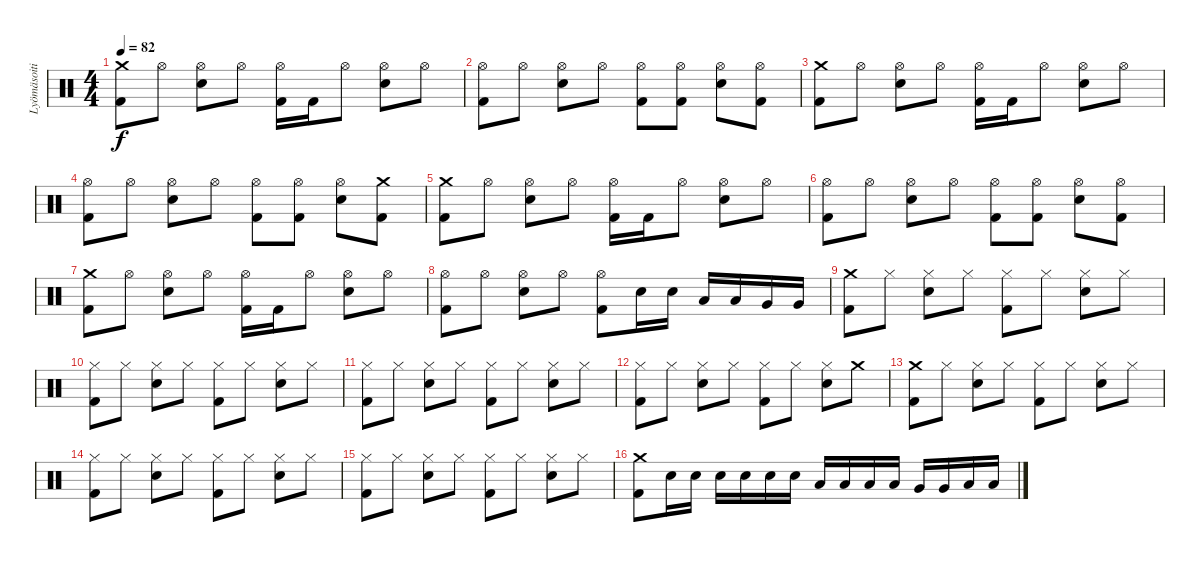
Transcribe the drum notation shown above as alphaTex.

\track ("Lyömäsoitin" "Lyömäsoiti") {instrument percussion}
\staff {score}
\articulation defaults
\ts (4 4)
\tempo 82
\clef neutral
\ks c
("Crash medium (hit)" "Kick (hit) 2").8{dy f} "Hi-Hat (open)".8 ("Hi-Hat (open)" "Electric Snare (hit)").8 "Hi-Hat (open)".8 ("Hi-Hat (open)" "Kick (hit) 2").16 "Kick (hit) 2".16 "Hi-Hat (open)".8 ("Hi-Hat (open)" "Electric Snare (hit)").8 "Hi-Hat (open)".8 |
("Hi-Hat (open)" "Kick (hit) 2").8 "Hi-Hat (open)".8 ("Hi-Hat (open)" "Electric Snare (hit)").8 "Hi-Hat (open)".8 ("Hi-Hat (open)" "Kick (hit) 2").8 ("Hi-Hat (open)" "Kick (hit) 2").8 ("Hi-Hat (open)" "Electric Snare (hit)").8 ("Hi-Hat (open)" "Kick (hit) 2").8 |
("Crash medium (hit)" "Kick (hit) 2").8 "Hi-Hat (open)".8 ("Hi-Hat (open)" "Electric Snare (hit)").8 "Hi-Hat (open)".8 ("Hi-Hat (open)" "Kick (hit) 2").16 "Kick (hit) 2".16 "Hi-Hat (open)".8 ("Hi-Hat (open)" "Electric Snare (hit)").8 "Hi-Hat (open)".8 |
("Hi-Hat (open)" "Kick (hit) 2").8 "Hi-Hat (open)".8 ("Hi-Hat (open)" "Electric Snare (hit)").8 "Hi-Hat (open)".8 ("Hi-Hat (open)" "Kick (hit) 2").8 ("Hi-Hat (open)" "Kick (hit) 2").8 ("Hi-Hat (open)" "Electric Snare (hit)").8 ("Crash medium (hit)" "Kick (hit) 2").8 |
("Crash medium (hit)" "Kick (hit) 2").8 "Hi-Hat (open)".8 ("Hi-Hat (open)" "Electric Snare (hit)").8 "Hi-Hat (open)".8 ("Hi-Hat (open)" "Kick (hit) 2").16 "Kick (hit) 2".16 "Hi-Hat (open)".8 ("Hi-Hat (open)" "Electric Snare (hit)").8 "Hi-Hat (open)".8 |
("Hi-Hat (open)" "Kick (hit) 2").8 "Hi-Hat (open)".8 ("Hi-Hat (open)" "Electric Snare (hit)").8 "Hi-Hat (open)".8 ("Hi-Hat (open)" "Kick (hit) 2").8 ("Hi-Hat (open)" "Kick (hit) 2").8 ("Hi-Hat (open)" "Electric Snare (hit)").8 ("Hi-Hat (open)" "Kick (hit) 2").8 |
("Crash medium (hit)" "Kick (hit) 2").8 "Hi-Hat (open)".8 ("Hi-Hat (open)" "Electric Snare (hit)").8 "Hi-Hat (open)".8 ("Hi-Hat (open)" "Kick (hit) 2").16 "Kick (hit) 2".16 "Hi-Hat (open)".8 ("Hi-Hat (open)" "Electric Snare (hit)").8 "Hi-Hat (open)".8 |
("Hi-Hat (open)" "Kick (hit) 2").8 "Hi-Hat (open)".8 ("Hi-Hat (open)" "Electric Snare (hit)").8 "Hi-Hat (open)".8 ("Hi-Hat (open)" "Kick (hit) 2").8 "Electric Snare (hit)".16 "Electric Snare (hit)".16 "Low Tom (hit)".16 "Low Tom (hit)".16 "Very Low Tom (hit)".16 "Very Low Tom (hit)".16 |
("Crash medium (hit)" "Kick (hit) 2").8 "Hi-Hat (closed)".8 ("Hi-Hat (closed)" "Electric Snare (hit)").8 "Hi-Hat (closed)".8 ("Hi-Hat (closed)" "Kick (hit) 2").8 "Hi-Hat (closed)".8 ("Hi-Hat (closed)" "Electric Snare (hit)").8 "Hi-Hat (closed)".8 |
("Hi-Hat (closed)" "Kick (hit) 2").8 "Hi-Hat (closed)".8 ("Hi-Hat (closed)" "Electric Snare (hit)").8 "Hi-Hat (closed)".8 ("Hi-Hat (closed)" "Kick (hit) 2").8 "Hi-Hat (closed)".8 ("Hi-Hat (closed)" "Electric Snare (hit)").8 "Hi-Hat (closed)".8 |
("Hi-Hat (closed)" "Kick (hit) 2").8 "Hi-Hat (closed)".8 ("Hi-Hat (closed)" "Electric Snare (hit)").8 "Hi-Hat (closed)".8 ("Hi-Hat (closed)" "Kick (hit) 2").8 "Hi-Hat (closed)".8 ("Hi-Hat (closed)" "Electric Snare (hit)").8 "Hi-Hat (closed)".8 |
("Hi-Hat (closed)" "Kick (hit) 2").8 "Hi-Hat (closed)".8 ("Hi-Hat (closed)" "Electric Snare (hit)").8 "Hi-Hat (closed)".8 ("Hi-Hat (closed)" "Kick (hit) 2").8 "Hi-Hat (closed)".8 ("Hi-Hat (closed)" "Electric Snare (hit)").8 "Crash medium (hit)".8 |
("Crash medium (hit)" "Kick (hit) 2").8 "Hi-Hat (closed)".8 ("Hi-Hat (closed)" "Electric Snare (hit)").8 "Hi-Hat (closed)".8 ("Hi-Hat (closed)" "Kick (hit) 2").8 "Hi-Hat (closed)".8 ("Hi-Hat (closed)" "Electric Snare (hit)").8 "Hi-Hat (closed)".8 |
("Hi-Hat (closed)" "Kick (hit) 2").8 "Hi-Hat (closed)".8 ("Hi-Hat (closed)" "Electric Snare (hit)").8 "Hi-Hat (closed)".8 ("Hi-Hat (closed)" "Kick (hit) 2").8 "Hi-Hat (closed)".8 ("Hi-Hat (closed)" "Electric Snare (hit)").8 "Hi-Hat (closed)".8 |
("Hi-Hat (closed)" "Kick (hit) 2").8 "Hi-Hat (closed)".8 ("Hi-Hat (closed)" "Electric Snare (hit)").8 "Hi-Hat (closed)".8 ("Hi-Hat (closed)" "Kick (hit) 2").8 "Hi-Hat (closed)".8 ("Hi-Hat (closed)" "Electric Snare (hit)").8 "Hi-Hat (closed)".8 |
("Crash medium (hit)" "Kick (hit) 2").8 "Electric Snare (hit)".16 "Electric Snare (hit)".16 "Electric Snare (hit)".16 "Electric Snare (hit)".16 "Electric Snare (hit)".16 "Electric Snare (hit)".16 "Low Tom (hit)".16 "Low Tom (hit)".16 "Low Tom (hit)".16 "Low Tom (hit)".16 "Very Low Tom (hit)".16 "Very Low Tom (hit)".16 "Low Floor Tom (hit)".16 "Low Floor Tom (hit)".16
